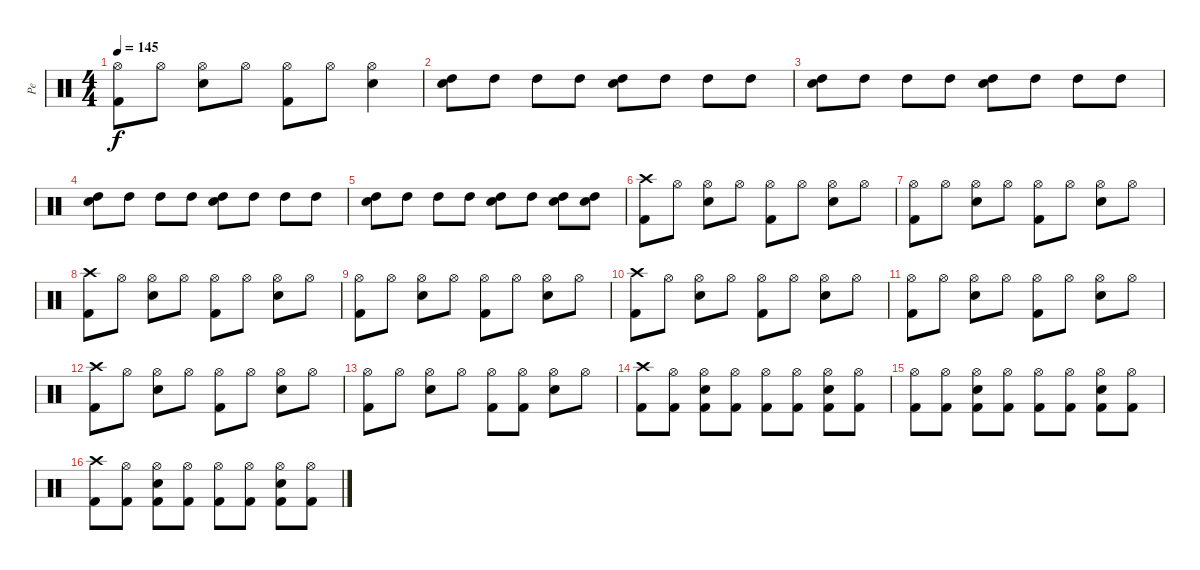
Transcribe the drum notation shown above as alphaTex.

\track ("Pe" "Pe") {instrument percussion}
\staff {score}
\articulation defaults
\ts (4 4)
\tempo 145
\clef neutral
\ks c
("Kick (hit) 2" "Hi-Hat (open)").8{dy f} "Hi-Hat (open)".8 ("Snare (hit) 2" "Hi-Hat (open)").8 "Hi-Hat (open)".8 ("Kick (hit) 2" "Hi-Hat (open)").8 "Hi-Hat (open)".8 ("Snare (hit) 2" "Hi-Hat (open)").4 |
("Snare (hit) 2" "High Tom (hit)").8 "High Tom (hit)".8 "High Tom (hit)".8 "High Tom (hit)".8 ("Snare (hit) 2" "High Tom (hit)").8 "High Tom (hit)".8 "High Tom (hit)".8 "High Tom (hit)".8 |
("Snare (hit) 2" "High Tom (hit)").8 "High Tom (hit)".8 "High Tom (hit)".8 "High Tom (hit)".8 ("Snare (hit) 2" "High Tom (hit)").8 "High Tom (hit)".8 "High Tom (hit)".8 "High Tom (hit)".8 |
("Snare (hit) 2" "High Tom (hit)").8 "High Tom (hit)".8 "High Tom (hit)".8 "High Tom (hit)".8 ("Snare (hit) 2" "High Tom (hit)").8 "High Tom (hit)".8 "High Tom (hit)".8 "High Tom (hit)".8 |
("Snare (hit) 2" "High Tom (hit)").8 "High Tom (hit)".8 "High Tom (hit)".8 "High Tom (hit)".8 ("Snare (hit) 2" "High Tom (hit)").8 "High Tom (hit)".8 ("Snare (hit) 2" "High Tom (hit)").8 ("Snare (hit) 2" "High Tom (hit)").8 |
("Kick (hit) 2" "Crash high (hit)").8 "Hi-Hat (open)".8 ("Snare (hit) 2" "Hi-Hat (open)").8 "Hi-Hat (open)".8 ("Kick (hit) 2" "Hi-Hat (open)").8 "Hi-Hat (open)".8 ("Snare (hit) 2" "Hi-Hat (open)").8 "Hi-Hat (open)".8 |
("Kick (hit) 2" "Hi-Hat (open)").8 "Hi-Hat (open)".8 ("Snare (hit) 2" "Hi-Hat (open)").8 "Hi-Hat (open)".8 ("Kick (hit) 2" "Hi-Hat (open)").8 "Hi-Hat (open)".8 ("Snare (hit) 2" "Hi-Hat (open)").8 "Hi-Hat (open)".8 |
("Kick (hit) 2" "Crash high (hit)").8 "Hi-Hat (open)".8 ("Snare (hit) 2" "Hi-Hat (open)").8 "Hi-Hat (open)".8 ("Kick (hit) 2" "Hi-Hat (open)").8 "Hi-Hat (open)".8 ("Snare (hit) 2" "Hi-Hat (open)").8 "Hi-Hat (open)".8 |
("Kick (hit) 2" "Hi-Hat (open)").8 "Hi-Hat (open)".8 ("Snare (hit) 2" "Hi-Hat (open)").8 "Hi-Hat (open)".8 ("Kick (hit) 2" "Hi-Hat (open)").8 "Hi-Hat (open)".8 ("Snare (hit) 2" "Hi-Hat (open)").8 "Hi-Hat (open)".8 |
("Kick (hit) 2" "Crash high (hit)").8 "Hi-Hat (open)".8 ("Snare (hit) 2" "Hi-Hat (open)").8 "Hi-Hat (open)".8 ("Kick (hit) 2" "Hi-Hat (open)").8 "Hi-Hat (open)".8 ("Snare (hit) 2" "Hi-Hat (open)").8 "Hi-Hat (open)".8 |
("Kick (hit) 2" "Hi-Hat (open)").8 "Hi-Hat (open)".8 ("Snare (hit) 2" "Hi-Hat (open)").8 "Hi-Hat (open)".8 ("Kick (hit) 2" "Hi-Hat (open)").8 "Hi-Hat (open)".8 ("Snare (hit) 2" "Hi-Hat (open)").8 "Hi-Hat (open)".8 |
("Kick (hit) 2" "Crash high (hit)").8 "Hi-Hat (open)".8 ("Snare (hit) 2" "Hi-Hat (open)").8 "Hi-Hat (open)".8 ("Kick (hit) 2" "Hi-Hat (open)").8 "Hi-Hat (open)".8 ("Snare (hit) 2" "Hi-Hat (open)").8 "Hi-Hat (open)".8 |
("Kick (hit) 2" "Hi-Hat (open)").8 "Hi-Hat (open)".8 ("Snare (hit) 2" "Hi-Hat (open)").8 "Hi-Hat (open)".8 ("Kick (hit) 2" "Hi-Hat (open)").8 ("Kick (hit) 2" "Hi-Hat (open)").8 ("Snare (hit) 2" "Hi-Hat (open)").8 "Hi-Hat (open)".8 |
("Kick (hit) 2" "Crash high (hit)").8 ("Kick (hit) 2" "Hi-Hat (open)").8 ("Kick (hit) 2" "Hi-Hat (open)" "Snare (hit) 2").8 ("Kick (hit) 2" "Hi-Hat (open)").8 ("Kick (hit) 2" "Hi-Hat (open)").8 ("Kick (hit) 2" "Hi-Hat (open)").8 ("Kick (hit) 2" "Hi-Hat (open)" "Snare (hit) 2").8 ("Kick (hit) 2" "Hi-Hat (open)").8 |
("Kick (hit) 2" "Hi-Hat (open)").8 ("Kick (hit) 2" "Hi-Hat (open)").8 ("Kick (hit) 2" "Hi-Hat (open)" "Snare (hit) 2").8 ("Kick (hit) 2" "Hi-Hat (open)").8 ("Kick (hit) 2" "Hi-Hat (open)").8 ("Kick (hit) 2" "Hi-Hat (open)").8 ("Kick (hit) 2" "Hi-Hat (open)" "Snare (hit) 2").8 ("Kick (hit) 2" "Hi-Hat (open)").8 |
("Kick (hit) 2" "Crash high (hit)").8 ("Kick (hit) 2" "Hi-Hat (open)").8 ("Kick (hit) 2" "Hi-Hat (open)" "Snare (hit) 2").8 ("Kick (hit) 2" "Hi-Hat (open)").8 ("Kick (hit) 2" "Hi-Hat (open)").8 ("Kick (hit) 2" "Hi-Hat (open)").8 ("Kick (hit) 2" "Hi-Hat (open)" "Snare (hit) 2").8 ("Kick (hit) 2" "Hi-Hat (open)").8
